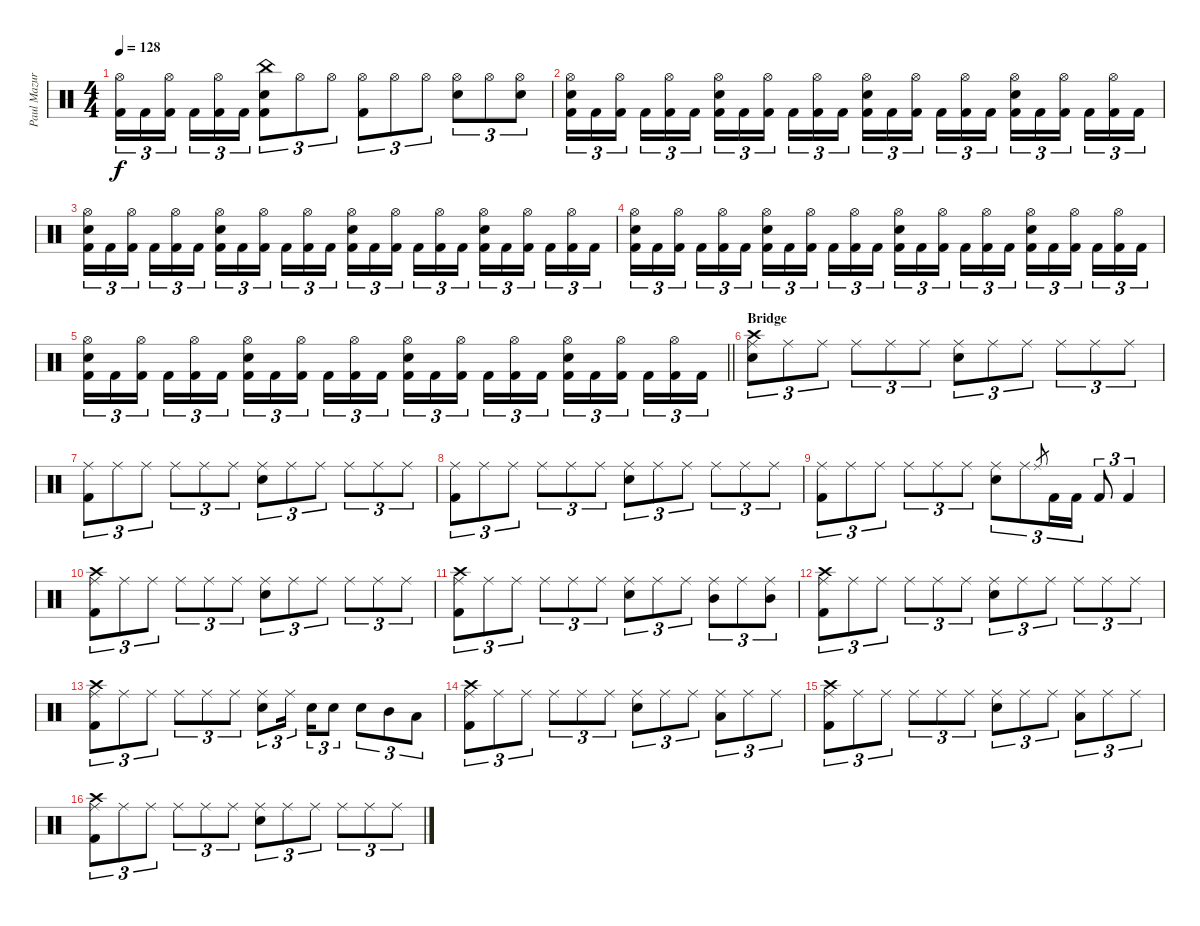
\track ("Paul Mazurkiewicz" "Paul Mazur") {instrument percussion}
\staff {score}
\articulation defaults
\ts (4 4)
\tempo 128
\clef neutral
\ks c
("Hi-Hat (open)" "Kick (hit) 2").16{tu (3 2) dy f} "Kick (hit) 2".16{tu (3 2)} ("Hi-Hat (open)" "Kick (hit) 2").16{tu (3 2)} "Kick (hit) 2".16{tu (3 2)} ("Hi-Hat (open)" "Kick (hit) 2").16{tu (3 2)} "Kick (hit) 2".16{tu (3 2)} ("China (hit)" "Kick (hit) 2" "Snare (hit) 2").8{tu (3 2)} "Hi-Hat (open)".8{tu (3 2)} "Hi-Hat (open)".8{tu (3 2)} ("Hi-Hat (open)" "Kick (hit) 2").8{tu (3 2)} "Hi-Hat (open)".8{tu (3 2)} "Hi-Hat (open)".8{tu (3 2)} ("Hi-Hat (open)" "Snare (hit) 2").8{tu (3 2)} "Hi-Hat (open)".8{tu (3 2)} ("Hi-Hat (open)" "Snare (hit) 2").8{tu (3 2)} |
("Snare (hit) 2" "Hi-Hat (open)" "Kick (hit) 2").16{tu (3 2)} "Kick (hit) 2".16{tu (3 2)} ("Hi-Hat (open)" "Kick (hit) 2").16{tu (3 2)} "Kick (hit) 2".16{tu (3 2)} ("Hi-Hat (open)" "Kick (hit) 2").16{tu (3 2)} "Kick (hit) 2".16{tu (3 2)} ("Snare (hit) 2" "Hi-Hat (open)" "Kick (hit) 2").16{tu (3 2)} "Kick (hit) 2".16{tu (3 2)} ("Hi-Hat (open)" "Kick (hit) 2").16{tu (3 2)} "Kick (hit) 2".16{tu (3 2)} ("Hi-Hat (open)" "Kick (hit) 2").16{tu (3 2)} "Kick (hit) 2".16{tu (3 2)} ("Snare (hit) 2" "Hi-Hat (open)" "Kick (hit) 2").16{tu (3 2)} "Kick (hit) 2".16{tu (3 2)} ("Hi-Hat (open)" "Kick (hit) 2").16{tu (3 2)} "Kick (hit) 2".16{tu (3 2)} ("Hi-Hat (open)" "Kick (hit) 2").16{tu (3 2)} "Kick (hit) 2".16{tu (3 2)} ("Snare (hit) 2" "Hi-Hat (open)" "Kick (hit) 2").16{tu (3 2)} "Kick (hit) 2".16{tu (3 2)} ("Hi-Hat (open)" "Kick (hit) 2").16{tu (3 2)} "Kick (hit) 2".16{tu (3 2)} ("Hi-Hat (open)" "Kick (hit) 2").16{tu (3 2)} "Kick (hit) 2".16{tu (3 2)} |
("Snare (hit) 2" "Hi-Hat (open)" "Kick (hit) 2").16{tu (3 2)} "Kick (hit) 2".16{tu (3 2)} ("Hi-Hat (open)" "Kick (hit) 2").16{tu (3 2)} "Kick (hit) 2".16{tu (3 2)} ("Hi-Hat (open)" "Kick (hit) 2").16{tu (3 2)} "Kick (hit) 2".16{tu (3 2)} ("Snare (hit) 2" "Hi-Hat (open)" "Kick (hit) 2").16{tu (3 2)} "Kick (hit) 2".16{tu (3 2)} ("Hi-Hat (open)" "Kick (hit) 2").16{tu (3 2)} "Kick (hit) 2".16{tu (3 2)} ("Hi-Hat (open)" "Kick (hit) 2").16{tu (3 2)} "Kick (hit) 2".16{tu (3 2)} ("Snare (hit) 2" "Hi-Hat (open)" "Kick (hit) 2").16{tu (3 2)} "Kick (hit) 2".16{tu (3 2)} ("Hi-Hat (open)" "Kick (hit) 2").16{tu (3 2)} "Kick (hit) 2".16{tu (3 2)} ("Hi-Hat (open)" "Kick (hit) 2").16{tu (3 2)} "Kick (hit) 2".16{tu (3 2)} ("Snare (hit) 2" "Hi-Hat (open)" "Kick (hit) 2").16{tu (3 2)} "Kick (hit) 2".16{tu (3 2)} ("Hi-Hat (open)" "Kick (hit) 2").16{tu (3 2)} "Kick (hit) 2".16{tu (3 2)} ("Hi-Hat (open)" "Kick (hit) 2").16{tu (3 2)} "Kick (hit) 2".16{tu (3 2)} |
("Snare (hit) 2" "Hi-Hat (open)" "Kick (hit) 2").16{tu (3 2)} "Kick (hit) 2".16{tu (3 2)} ("Hi-Hat (open)" "Kick (hit) 2").16{tu (3 2)} "Kick (hit) 2".16{tu (3 2)} ("Hi-Hat (open)" "Kick (hit) 2").16{tu (3 2)} "Kick (hit) 2".16{tu (3 2)} ("Snare (hit) 2" "Hi-Hat (open)" "Kick (hit) 2").16{tu (3 2)} "Kick (hit) 2".16{tu (3 2)} ("Hi-Hat (open)" "Kick (hit) 2").16{tu (3 2)} "Kick (hit) 2".16{tu (3 2)} ("Hi-Hat (open)" "Kick (hit) 2").16{tu (3 2)} "Kick (hit) 2".16{tu (3 2)} ("Snare (hit) 2" "Hi-Hat (open)" "Kick (hit) 2").16{tu (3 2)} "Kick (hit) 2".16{tu (3 2)} ("Hi-Hat (open)" "Kick (hit) 2").16{tu (3 2)} "Kick (hit) 2".16{tu (3 2)} ("Hi-Hat (open)" "Kick (hit) 2").16{tu (3 2)} "Kick (hit) 2".16{tu (3 2)} ("Snare (hit) 2" "Hi-Hat (open)" "Kick (hit) 2").16{tu (3 2)} "Kick (hit) 2".16{tu (3 2)} ("Hi-Hat (open)" "Kick (hit) 2").16{tu (3 2)} "Kick (hit) 2".16{tu (3 2)} ("Hi-Hat (open)" "Kick (hit) 2").16{tu (3 2)} "Kick (hit) 2".16{tu (3 2)} |
\barLineRight lightlight
("Snare (hit) 2" "Hi-Hat (open)" "Kick (hit) 2").16{tu (3 2)} "Kick (hit) 2".16{tu (3 2)} ("Hi-Hat (open)" "Kick (hit) 2").16{tu (3 2)} "Kick (hit) 2".16{tu (3 2)} ("Hi-Hat (open)" "Kick (hit) 2").16{tu (3 2)} "Kick (hit) 2".16{tu (3 2)} ("Snare (hit) 2" "Hi-Hat (open)" "Kick (hit) 2").16{tu (3 2)} "Kick (hit) 2".16{tu (3 2)} ("Hi-Hat (open)" "Kick (hit) 2").16{tu (3 2)} "Kick (hit) 2".16{tu (3 2)} ("Hi-Hat (open)" "Kick (hit) 2").16{tu (3 2)} "Kick (hit) 2".16{tu (3 2)} ("Snare (hit) 2" "Hi-Hat (open)" "Kick (hit) 2").16{tu (3 2)} "Kick (hit) 2".16{tu (3 2)} ("Hi-Hat (open)" "Kick (hit) 2").16{tu (3 2)} "Kick (hit) 2".16{tu (3 2)} ("Hi-Hat (open)" "Kick (hit) 2").16{tu (3 2)} "Kick (hit) 2".16{tu (3 2)} ("Snare (hit) 2" "Hi-Hat (open)" "Kick (hit) 2").16{tu (3 2)} "Kick (hit) 2".16{tu (3 2)} ("Hi-Hat (open)" "Kick (hit) 2").16{tu (3 2)} "Kick (hit) 2".16{tu (3 2)} ("Hi-Hat (open)" "Kick (hit) 2").16{tu (3 2)} "Kick (hit) 2".16{tu (3 2)} |
\section ("" "Bridge")
("Crash high (hit)" "Snare (hit) 2" "Ride (middle)").8{tu (3 2)} "Ride (middle)".8{tu (3 2)} "Ride (middle)".8{tu (3 2)} "Ride (middle)".8{tu (3 2)} "Ride (middle)".8{tu (3 2)} "Ride (middle)".8{tu (3 2)} ("Snare (hit) 2" "Ride (middle)").8{tu (3 2)} "Ride (middle)".8{tu (3 2)} "Ride (middle)".8{tu (3 2)} "Ride (middle)".8{tu (3 2)} "Ride (middle)".8{tu (3 2)} "Ride (middle)".8{tu (3 2)} |
("Kick (hit) 2" "Ride (middle)").8{tu (3 2)} "Ride (middle)".8{tu (3 2)} "Ride (middle)".8{tu (3 2)} "Ride (middle)".8{tu (3 2)} "Ride (middle)".8{tu (3 2)} "Ride (middle)".8{tu (3 2)} ("Snare (hit) 2" "Ride (middle)").8{tu (3 2)} "Ride (middle)".8{tu (3 2)} "Ride (middle)".8{tu (3 2)} "Ride (middle)".8{tu (3 2)} "Ride (middle)".8{tu (3 2)} "Ride (middle)".8{tu (3 2)} |
("Kick (hit) 2" "Ride (middle)").8{tu (3 2)} "Ride (middle)".8{tu (3 2)} "Ride (middle)".8{tu (3 2)} "Ride (middle)".8{tu (3 2)} "Ride (middle)".8{tu (3 2)} "Ride (middle)".8{tu (3 2)} ("Snare (hit) 2" "Ride (middle)").8{tu (3 2)} "Ride (middle)".8{tu (3 2)} "Ride (middle)".8{tu (3 2)} "Ride (middle)".8{tu (3 2)} "Ride (middle)".8{tu (3 2)} "Ride (middle)".8{tu (3 2)} |
("Kick (hit) 2" "Ride (middle)").8{tu (3 2)} "Ride (middle)".8{tu (3 2)} "Ride (middle)".8{tu (3 2)} "Ride (middle)".8{tu (3 2)} "Ride (middle)".8{tu (3 2)} "Ride (middle)".8{tu (3 2)} ("Snare (hit) 2" "Ride (middle)").8{tu (3 2)} "Ride (middle)".8{tu (3 2)} "Ride (middle)".8{gr} "Kick (hit) 2".16{tu (3 2)} "Kick (hit) 2".16{tu (3 2)} "Kick (hit) 2".8{tu (3 2)} "Kick (hit) 2".4{tu (3 2)} |
("Crash high (hit)" "Kick (hit) 2" "Ride (middle)").8{tu (3 2)} "Ride (middle)".8{tu (3 2)} "Ride (middle)".8{tu (3 2)} "Ride (middle)".8{tu (3 2)} "Ride (middle)".8{tu (3 2)} "Ride (middle)".8{tu (3 2)} ("Snare (hit) 2" "Ride (middle)").8{tu (3 2)} "Ride (middle)".8{tu (3 2)} "Ride (middle)".8{tu (3 2)} "Ride (middle)".8{tu (3 2)} "Ride (middle)".8{tu (3 2)} "Ride (middle)".8{tu (3 2)} |
("Crash high (hit)" "Kick (hit) 2" "Ride (middle)").8{tu (3 2)} "Ride (middle)".8{tu (3 2)} "Ride (middle)".8{tu (3 2)} "Ride (middle)".8{tu (3 2)} "Ride (middle)".8{tu (3 2)} "Ride (middle)".8{tu (3 2)} ("Snare (hit) 2" "Ride (middle)").8{tu (3 2)} "Ride (middle)".8{tu (3 2)} "Ride (middle)".8{tu (3 2)} ("Mid Tom (hit)" "Ride (middle)").8{tu (3 2)} "Ride (middle)".8{tu (3 2)} ("Mid Tom (hit)" "Ride (middle)").8{tu (3 2)} |
("Crash high (hit)" "Kick (hit) 2" "Ride (middle)").8{tu (3 2)} "Ride (middle)".8{tu (3 2)} "Ride (middle)".8{tu (3 2)} "Ride (middle)".8{tu (3 2)} "Ride (middle)".8{tu (3 2)} "Ride (middle)".8{tu (3 2)} ("Snare (hit) 2" "Ride (middle)").8{tu (3 2)} "Ride (middle)".8{tu (3 2)} "Ride (middle)".8{tu (3 2)} "Ride (middle)".8{tu (3 2)} "Ride (middle)".8{tu (3 2)} "Ride (middle)".8{tu (3 2)} |
("Crash high (hit)" "Kick (hit) 2" "Ride (middle)").8{tu (3 2)} "Ride (middle)".8{tu (3 2)} "Ride (middle)".8{tu (3 2)} "Ride (middle)".8{tu (3 2)} "Ride (middle)".8{tu (3 2)} "Ride (middle)".8{tu (3 2)} ("Snare (hit) 2" "Ride (middle)").8{tu (3 2)} "Ride (middle)".16{tu (3 2)} "Snare (hit) 2".16{tu (3 2)} "Snare (hit) 2".8{tu (3 2)} "Snare (hit) 2".8{tu (3 2)} "Mid Tom (hit)".8{tu (3 2)} "Low Tom (hit)".8{tu (3 2)} |
("Crash high (hit)" "Kick (hit) 2" "Ride (middle)").8{tu (3 2)} "Ride (middle)".8{tu (3 2)} "Ride (middle)".8{tu (3 2)} "Ride (middle)".8{tu (3 2)} "Ride (middle)".8{tu (3 2)} "Ride (middle)".8{tu (3 2)} ("Snare (hit) 2" "Ride (middle)").8{tu (3 2)} "Ride (middle)".8{tu (3 2)} "Ride (middle)".8{tu (3 2)} ("Low Tom (hit)" "Ride (middle)").8{tu (3 2)} "Ride (middle)".8{tu (3 2)} "Ride (middle)".8{tu (3 2)} |
("Crash high (hit)" "Kick (hit) 2" "Ride (middle)").8{tu (3 2)} "Ride (middle)".8{tu (3 2)} "Ride (middle)".8{tu (3 2)} "Ride (middle)".8{tu (3 2)} "Ride (middle)".8{tu (3 2)} "Ride (middle)".8{tu (3 2)} ("Snare (hit) 2" "Ride (middle)").8{tu (3 2)} "Ride (middle)".8{tu (3 2)} "Ride (middle)".8{tu (3 2)} ("Low Tom (hit)" "Ride (middle)").8{tu (3 2)} "Ride (middle)".8{tu (3 2)} "Ride (middle)".8{tu (3 2)} |
("Crash high (hit)" "Kick (hit) 2" "Ride (middle)").8{tu (3 2)} "Ride (middle)".8{tu (3 2)} "Ride (middle)".8{tu (3 2)} "Ride (middle)".8{tu (3 2)} "Ride (middle)".8{tu (3 2)} "Ride (middle)".8{tu (3 2)} ("Snare (hit) 2" "Ride (middle)").8{tu (3 2)} "Ride (middle)".8{tu (3 2)} "Ride (middle)".8{tu (3 2)} "Ride (middle)".8{tu (3 2)} "Ride (middle)".8{tu (3 2)} "Ride (middle)".8{tu (3 2)}
